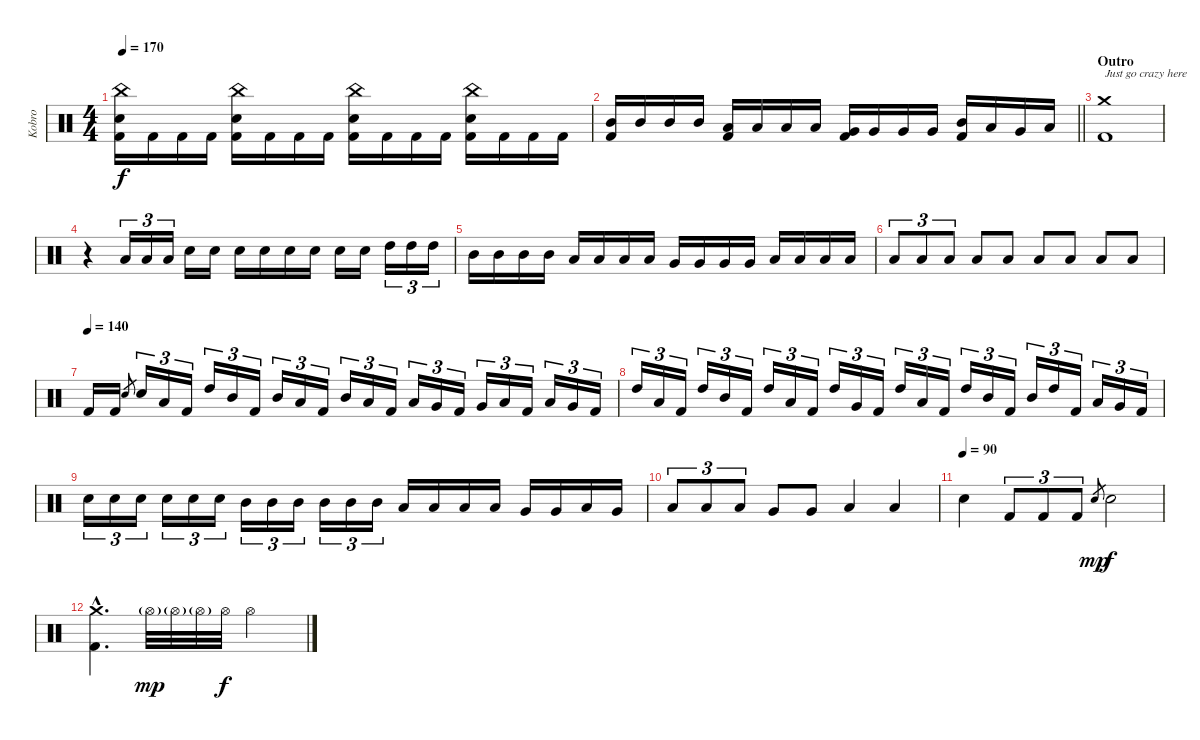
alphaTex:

\track ("Kobro" "Kobro") {instrument percussion}
\staff {score}
\articulation defaults
\ts (4 4)
\tempo 170
\clef neutral
\ks c
("China (hit)" "Electric Snare (hit)" "Kick (hit) 2").16{dy f} "Kick (hit) 2".16 "Kick (hit) 2".16 "Kick (hit) 2".16 ("China (hit)" "Electric Snare (hit)" "Kick (hit) 2").16 "Kick (hit) 2".16 "Kick (hit) 2".16 "Kick (hit) 2".16 ("China (hit)" "Electric Snare (hit)" "Kick (hit) 2").16 "Kick (hit) 2".16 "Kick (hit) 2".16 "Kick (hit) 2".16 ("China (hit)" "Electric Snare (hit)" "Kick (hit) 2").16 "Kick (hit) 2".16 "Kick (hit) 2".16 "Kick (hit) 2".16 |
\barLineRight lightlight
("Mid Tom (hit)" "Kick (hit) 2").16 "Mid Tom (hit)".16 "Mid Tom (hit)".16 "Mid Tom (hit)".16 ("Low Tom (hit)" "Kick (hit) 2").16 "Low Tom (hit)".16 "Low Tom (hit)".16 "Low Tom (hit)".16 ("Very Low Tom (hit)" "Kick (hit) 2").16 "Very Low Tom (hit)".16 "Very Low Tom (hit)".16 "Very Low Tom (hit)".16 ("Mid Tom (hit)" "Kick (hit) 2").16 "Low Tom (hit)".16 "Very Low Tom (hit)".16 "Low Floor Tom (hit)".16 |
\section ("" "Outro")
("Crash medium (hit)" "Kick (hit) 2").1{txt "Just go crazy here"} |
r.4 "Low Tom (hit)".16{tu (3 2)} "Low Tom (hit)".16{tu (3 2)} "Low Tom (hit)".16{tu (3 2)} "Electric Snare (hit)".16 "Electric Snare (hit)".16 "Electric Snare (hit)".16 "Electric Snare (hit)".16 "Electric Snare (hit)".16 "Electric Snare (hit)".16 "Electric Snare (hit)".16 "Electric Snare (hit)".16 "High Tom (hit)".16{tu (3 2)} "High Tom (hit)".16{tu (3 2)} "High Tom (hit)".16{tu (3 2)} |
"Mid Tom (hit)".16 "Mid Tom (hit)".16 "Mid Tom (hit)".16 "Mid Tom (hit)".16 "Low Tom (hit)".16 "Low Tom (hit)".16 "Low Tom (hit)".16 "Low Tom (hit)".16 "Very Low Tom (hit)".16 "Very Low Tom (hit)".16 "Very Low Tom (hit)".16 "Very Low Tom (hit)".16 "Low Floor Tom (hit)".16 "Low Floor Tom (hit)".16 "Low Floor Tom (hit)".16 "Low Floor Tom (hit)".16 |
"Low Floor Tom (hit)".8{tu (3 2)} "Low Floor Tom (hit)".8{tu (3 2)} "Low Floor Tom (hit)".8{tu (3 2)} "Low Floor Tom (hit)".8 "Low Floor Tom (hit)".8 "Low Floor Tom (hit)".8 "Low Floor Tom (hit)".8 "Low Floor Tom (hit)".8 "Low Floor Tom (hit)".8 |
\tempo (140)
"Kick (hit) 2".16 "Kick (hit) 2".16 "Electric Snare (hit)".8{gr} "Electric Snare (hit)".16{tu (3 2)} "Low Tom (hit)".16{tu (3 2)} "Kick (hit) 2".16{tu (3 2)} "High Tom (hit)".16{tu (3 2)} "Mid Tom (hit)".16{tu (3 2)} "Kick (hit) 2".16{tu (3 2)} "Mid Tom (hit)".16{tu (3 2)} "Low Tom (hit)".16{tu (3 2)} "Kick (hit) 2".16{tu (3 2)} "Mid Tom (hit)".16{tu (3 2)} "Low Tom (hit)".16{tu (3 2)} "Kick (hit) 2".16{tu (3 2)} "Low Tom (hit)".16{tu (3 2)} "Very Low Tom (hit)".16{tu (3 2)} "Kick (hit) 2".16{tu (3 2)} "Very Low Tom (hit)".16{tu (3 2)} "Low Floor Tom (hit)".16{tu (3 2)} "Kick (hit) 2".16{tu (3 2)} "Low Floor Tom (hit)".16{tu (3 2)} "Very Low Tom (hit)".16{tu (3 2)} "Kick (hit) 2".16{tu (3 2)} |
"High Tom (hit)".16{tu (3 2)} "Low Tom (hit)".16{tu (3 2)} "Kick (hit) 2".16{tu (3 2)} "High Tom (hit)".16{tu (3 2)} "Mid Tom (hit)".16{tu (3 2)} "Kick (hit) 2".16{tu (3 2)} "High Tom (hit)".16{tu (3 2)} "Low Tom (hit)".16{tu (3 2)} "Kick (hit) 2".16{tu (3 2)} "High Tom (hit)".16{tu (3 2)} "Very Low Tom (hit)".16{tu (3 2)} "Kick (hit) 2".16{tu (3 2)} "High Tom (hit)".16{tu (3 2)} "Low Floor Tom (hit)".16{tu (3 2)} "Kick (hit) 2".16{tu (3 2)} "High Tom (hit)".16{tu (3 2)} "Mid Tom (hit)".16{tu (3 2)} "Kick (hit) 2".16{tu (3 2)} "Mid Tom (hit)".16{tu (3 2)} "High Tom (hit)".16{tu (3 2)} "Kick (hit) 2".16{tu (3 2)} "Low Tom (hit)".16{tu (3 2)} "Very Low Tom (hit)".16{tu (3 2)} "Kick (hit) 2".16{tu (3 2)} |
"Electric Snare (hit)".16{tu (3 2)} "Electric Snare (hit)".16{tu (3 2)} "Electric Snare (hit)".16{tu (3 2)} "Electric Snare (hit)".16{tu (3 2)} "Electric Snare (hit)".16{tu (3 2)} "Electric Snare (hit)".16{tu (3 2)} "Mid Tom (hit)".16{tu (3 2)} "Mid Tom (hit)".16{tu (3 2)} "Mid Tom (hit)".16{tu (3 2)} "Mid Tom (hit)".16{tu (3 2)} "Mid Tom (hit)".16{tu (3 2)} "Mid Tom (hit)".16{tu (3 2)} "Low Tom (hit)".16 "Low Tom (hit)".16 "Low Tom (hit)".16 "Low Tom (hit)".16 "Very Low Tom (hit)".16 "Very Low Tom (hit)".16 "Low Floor Tom (hit)".16 "Very Low Tom (hit)".16 |
"Low Tom (hit)".8{tu (3 2)} "Low Tom (hit)".8{tu (3 2)} "Low Tom (hit)".8{tu (3 2)} "Very Low Tom (hit)".8 "Very Low Tom (hit)".8 "Low Floor Tom (hit)".4 "Low Floor Tom (hit)".4 |
\tempo (90)
"Electric Snare (hit)".4 "Kick (hit) 2".8{tu (3 2)} "Kick (hit) 2".8{tu (3 2)} "Kick (hit) 2".8{tu (3 2)} "Electric Snare (hit)".8{gr dy mp} "Electric Snare (hit)".2{dy f} |
("Crash medium (hit)"{hac} "Kick (hit) 2"{hac}).4{d} "Hi-Hat (open)"{g}.32{dy mp} "Hi-Hat (open)"{g}.32 "Hi-Hat (open)"{g}.32 "Hi-Hat (open)".32{dy f} "Hi-Hat (open)".2
